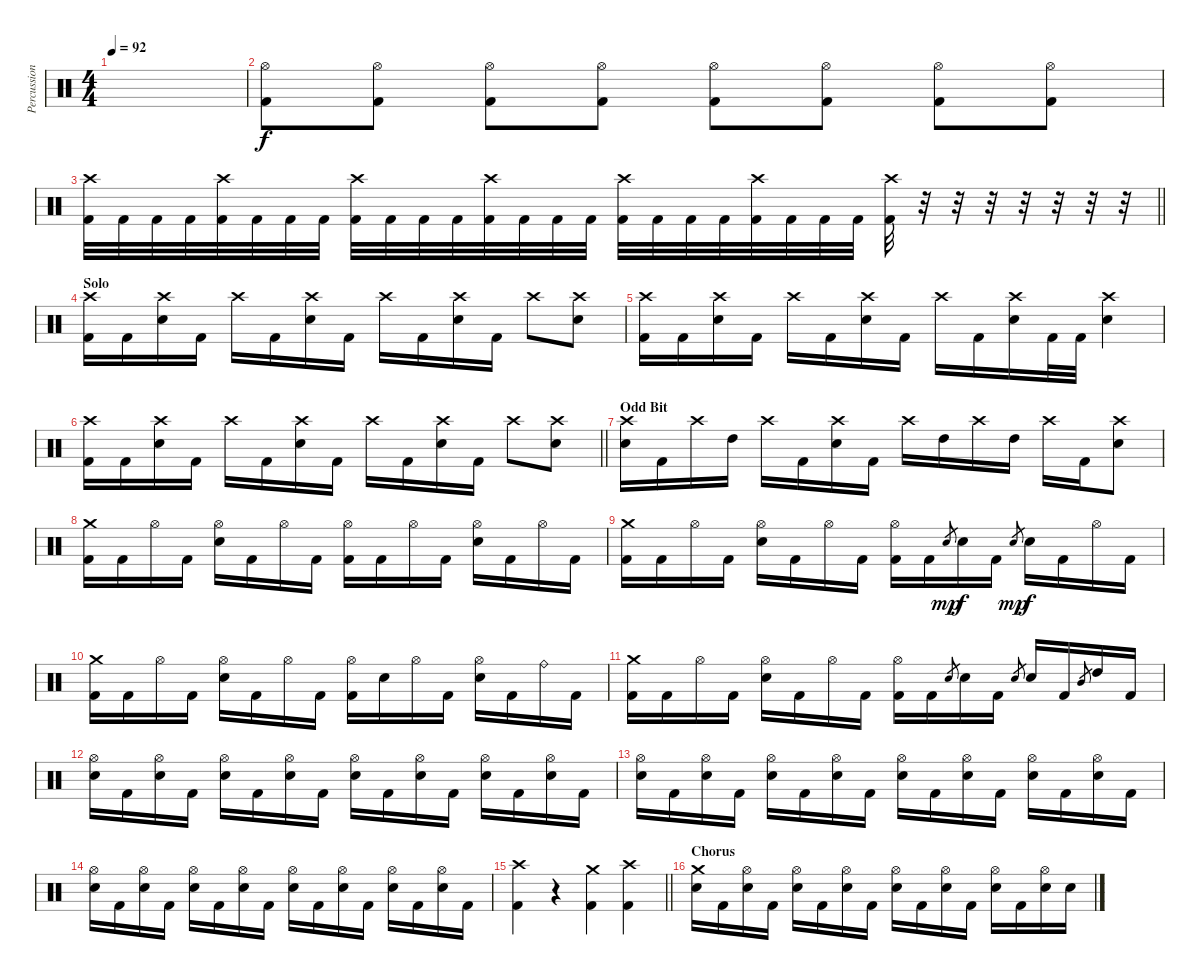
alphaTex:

\track ("Percussion" "Percussion") {instrument percussion}
\staff {score}
\articulation defaults
\ts (4 4)
\tempo 92
\clef neutral
\ks c
|
("Hi-Hat (open)" "Kick (hit) 2").8 ("Hi-Hat (open)" "Kick (hit) 2").8 ("Hi-Hat (open)" "Kick (hit) 2").8 ("Hi-Hat (open)" "Kick (hit) 2").8 ("Hi-Hat (open)" "Kick (hit) 2").8 ("Hi-Hat (open)" "Kick (hit) 2").8 ("Hi-Hat (open)" "Kick (hit) 2").8 ("Hi-Hat (open)" "Kick (hit) 2").8 |
\barLineRight lightlight
("Crash high (hit)" "Kick (hit) 2").32 "Kick (hit) 2".32 "Kick (hit) 2".32 "Kick (hit) 2".32 ("Crash high (hit)" "Kick (hit) 2").32 "Kick (hit) 2".32 "Kick (hit) 2".32 "Kick (hit) 2".32 ("Crash high (hit)" "Kick (hit) 2").32 "Kick (hit) 2".32 "Kick (hit) 2".32 "Kick (hit) 2".32 ("Crash high (hit)" "Kick (hit) 2").32 "Kick (hit) 2".32 "Kick (hit) 2".32 "Kick (hit) 2".32 ("Crash high (hit)" "Kick (hit) 2").32 "Kick (hit) 2".32 "Kick (hit) 2".32 "Kick (hit) 2".32 ("Crash high (hit)" "Kick (hit) 2").32 "Kick (hit) 2".32 "Kick (hit) 2".32 "Kick (hit) 2".32 ("Crash high (hit)" "Kick (hit) 2").32 r.32 r.32 r.32 r.32 r.32 r.32 r.32 |
\section ("" "Solo")
("Crash high (hit)" "Kick (hit) 2").16 "Kick (hit) 2".16 ("Crash high (hit)" "Electric Snare (hit)").16 "Kick (hit) 2".16 "Crash high (hit)".16 "Kick (hit) 2".16 ("Crash high (hit)" "Electric Snare (hit)").16 "Kick (hit) 2".16 "Crash high (hit)".16 "Kick (hit) 2".16 ("Crash high (hit)" "Electric Snare (hit)").16 "Kick (hit) 2".16 "Crash high (hit)".8 ("Crash high (hit)" "Electric Snare (hit)").8 |
("Crash high (hit)" "Kick (hit) 2").16 "Kick (hit) 2".16 ("Crash high (hit)" "Electric Snare (hit)").16 "Kick (hit) 2".16 "Crash high (hit)".16 "Kick (hit) 2".16 ("Crash high (hit)" "Electric Snare (hit)").16 "Kick (hit) 2".16 "Crash high (hit)".16 "Kick (hit) 2".16 ("Crash high (hit)" "Electric Snare (hit)").16 "Kick (hit) 2".32 "Kick (hit) 2".32 ("Crash high (hit)" "Electric Snare (hit)").4 |
\barLineRight lightlight
("Crash high (hit)" "Kick (hit) 2").16 "Kick (hit) 2".16 ("Crash high (hit)" "Electric Snare (hit)").16 "Kick (hit) 2".16 "Crash high (hit)".16 "Kick (hit) 2".16 ("Crash high (hit)" "Electric Snare (hit)").16 "Kick (hit) 2".16 "Crash high (hit)".16 "Kick (hit) 2".16 ("Crash high (hit)" "Electric Snare (hit)").16 "Kick (hit) 2".16 "Crash high (hit)".8 ("Crash high (hit)" "Electric Snare (hit)").8 |
\section ("" "Odd Bit")
("Crash high (hit)" "Electric Snare (hit)").16 "Kick (hit) 2".16 "Crash high (hit)".16 "High Tom (hit)".16 "Crash high (hit)".16 "Kick (hit) 2".16 ("Crash high (hit)" "Electric Snare (hit)").16 "Kick (hit) 2".16 "Crash high (hit)".16 "High Tom (hit)".16 "Crash high (hit)".16 "High Tom (hit)".16 "Crash high (hit)".16 "Kick (hit) 2".16 ("Crash high (hit)" "Electric Snare (hit)").8 |
("Crash medium (hit)" "Kick (hit) 2").16 "Kick (hit) 2".16 "Hi-Hat (open)".16 "Kick (hit) 2".16 ("Hi-Hat (open)" "Electric Snare (hit)").16 "Kick (hit) 2".16 "Hi-Hat (open)".16 "Kick (hit) 2".16 ("Hi-Hat (open)" "Kick (hit) 2").16 "Kick (hit) 2".16 "Hi-Hat (open)".16 "Kick (hit) 2".16 ("Hi-Hat (open)" "Electric Snare (hit)").16 "Kick (hit) 2".16 "Hi-Hat (open)".16 "Kick (hit) 2".16 |
("Crash medium (hit)" "Kick (hit) 2").16 "Kick (hit) 2".16 "Hi-Hat (open)".16 "Kick (hit) 2".16 ("Hi-Hat (open)" "Electric Snare (hit)").16 "Kick (hit) 2".16 "Hi-Hat (open)".16 "Kick (hit) 2".16 ("Hi-Hat (open)" "Kick (hit) 2").16 "Kick (hit) 2".16 "Electric Snare (hit)".8{gr dy mp} "Electric Snare (hit)".16{dy f} "Kick (hit) 2".16 "Electric Snare (hit)".8{gr dy mp} "Electric Snare (hit)".16{dy f} "Kick (hit) 2".16 "Hi-Hat (open)".16 "Kick (hit) 2".16 |
("Crash medium (hit)" "Kick (hit) 2").16 "Kick (hit) 2".16 "Hi-Hat (open)".16 "Kick (hit) 2".16 ("Hi-Hat (open)" "Electric Snare (hit)").16 "Kick (hit) 2".16 "Hi-Hat (open)".16 "Kick (hit) 2".16 ("Hi-Hat (open)" "Kick (hit) 2").16 "Electric Snare (hit)".16 "Hi-Hat (open)".16 "Kick (hit) 2".16 ("Hi-Hat (open)" "Electric Snare (hit)").16 "Kick (hit) 2".16 "Ride (bell)".16 "Kick (hit) 2".16 |
("Crash medium (hit)" "Kick (hit) 2").16 "Kick (hit) 2".16 "Hi-Hat (open)".16 "Kick (hit) 2".16 ("Hi-Hat (open)" "Electric Snare (hit)").16 "Kick (hit) 2".16 "Hi-Hat (open)".16 "Kick (hit) 2".16 ("Hi-Hat (open)" "Kick (hit) 2").16 "Kick (hit) 2".16 "Electric Snare (hit)".8{gr} "Electric Snare (hit)".16 "Kick (hit) 2".16 "Electric Snare (hit)".8{gr} "Electric Snare (hit)".16 "Kick (hit) 2".16 "Mid Tom (hit)".8{gr} "High Tom (hit)".16 "Kick (hit) 2".16 |
("Hi-Hat (open)" "Electric Snare (hit)").16{volume 6} "Kick (hit) 2".16 ("Hi-Hat (open)" "Electric Snare (hit)").16 "Kick (hit) 2".16 ("Hi-Hat (open)" "Electric Snare (hit)").16 "Kick (hit) 2".16 ("Hi-Hat (open)" "Electric Snare (hit)").16 "Kick (hit) 2".16 ("Hi-Hat (open)" "Electric Snare (hit)").16 "Kick (hit) 2".16 ("Hi-Hat (open)" "Electric Snare (hit)").16 "Kick (hit) 2".16 ("Hi-Hat (open)" "Electric Snare (hit)").16 "Kick (hit) 2".16 ("Hi-Hat (open)" "Electric Snare (hit)").16 "Kick (hit) 2".16 |
("Hi-Hat (open)" "Electric Snare (hit)").16 "Kick (hit) 2".16 ("Hi-Hat (open)" "Electric Snare (hit)").16 "Kick (hit) 2".16 ("Hi-Hat (open)" "Electric Snare (hit)").16 "Kick (hit) 2".16 ("Hi-Hat (open)" "Electric Snare (hit)").16 "Kick (hit) 2".16 ("Hi-Hat (open)" "Electric Snare (hit)").16 "Kick (hit) 2".16 ("Hi-Hat (open)" "Electric Snare (hit)").16 "Kick (hit) 2".16 ("Hi-Hat (open)" "Electric Snare (hit)").16 "Kick (hit) 2".16 ("Hi-Hat (open)" "Electric Snare (hit)").16 "Kick (hit) 2".16 |
("Hi-Hat (open)" "Electric Snare (hit)").16 "Kick (hit) 2".16 ("Hi-Hat (open)" "Electric Snare (hit)").16 "Kick (hit) 2".16 ("Hi-Hat (open)" "Electric Snare (hit)").16 "Kick (hit) 2".16 ("Hi-Hat (open)" "Electric Snare (hit)").16 "Kick (hit) 2".16 ("Hi-Hat (open)" "Electric Snare (hit)").16 "Kick (hit) 2".16 ("Hi-Hat (open)" "Electric Snare (hit)").16 "Kick (hit) 2".16 ("Hi-Hat (open)" "Electric Snare (hit)").16 "Kick (hit) 2".16 ("Hi-Hat (open)" "Electric Snare (hit)").16 "Kick (hit) 2".16 |
\barLineRight lightlight
("Crash high (hit)" "Kick (hit) 2").4{volume 13} r.4 ("Crash medium (hit)" "Kick (hit) 2").4 ("Crash high (hit)" "Kick (hit) 2").4{volume 13} |
\section ("" "Chorus")
("Crash medium (hit)" "Electric Snare (hit)").16 "Kick (hit) 2".16 ("Hi-Hat (open)" "Electric Snare (hit)").16 "Kick (hit) 2".16 ("Hi-Hat (open)" "Electric Snare (hit)").16 "Kick (hit) 2".16 ("Hi-Hat (open)" "Electric Snare (hit)").16 "Kick (hit) 2".16 ("Hi-Hat (open)" "Electric Snare (hit)").16 "Kick (hit) 2".16 ("Hi-Hat (open)" "Electric Snare (hit)").16 "Kick (hit) 2".16 ("Hi-Hat (open)" "Electric Snare (hit)").16 "Kick (hit) 2".16 ("Hi-Hat (open)" "Electric Snare (hit)").16 "Electric Snare (hit)".16
